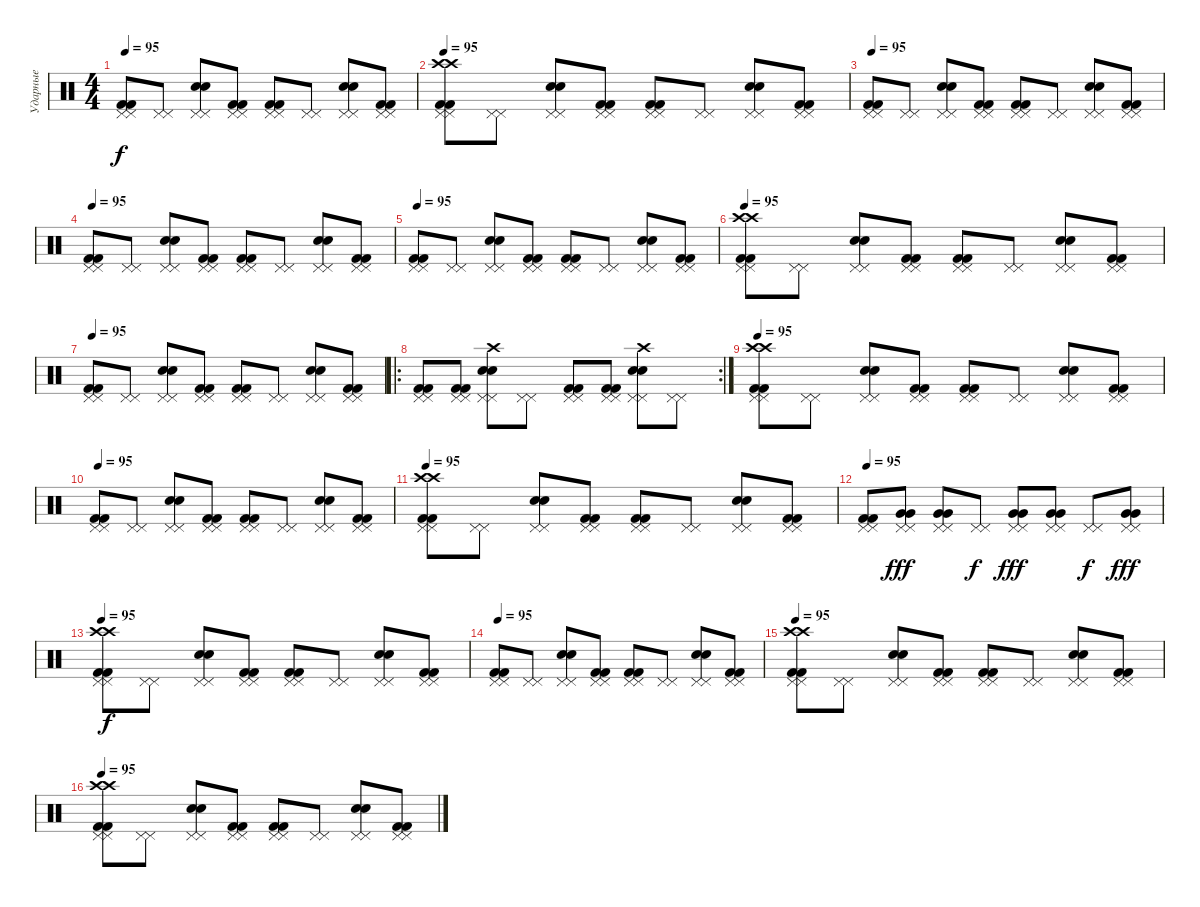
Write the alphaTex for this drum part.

\track ("Ударные" "Ударные") {instrument percussion}
\staff {score}
\articulation defaults
\ts (4 4)
\tempo 95
\clef neutral
\ks c
("Kick (hit) 2" "Kick (hit) 2" "Pedal Hi-Hat (hit)" "Pedal Hi-Hat (hit)").8{dy f} ("Pedal Hi-Hat (hit)" "Pedal Hi-Hat (hit)").8 ("Pedal Hi-Hat (hit)" "Pedal Hi-Hat (hit)" "Electric Snare (hit)" "Electric Snare (hit)").8 ("Pedal Hi-Hat (hit)" "Pedal Hi-Hat (hit)" "Kick (hit) 2" "Kick (hit) 2").8 ("Pedal Hi-Hat (hit)" "Pedal Hi-Hat (hit)" "Kick (hit) 2" "Kick (hit) 2").8 ("Pedal Hi-Hat (hit)" "Pedal Hi-Hat (hit)").8 ("Pedal Hi-Hat (hit)" "Pedal Hi-Hat (hit)" "Electric Snare (hit)" "Electric Snare (hit)").8 ("Pedal Hi-Hat (hit)" "Pedal Hi-Hat (hit)" "Kick (hit) 2" "Kick (hit) 2").8 |
\tempo 95
("Kick (hit) 2" "Kick (hit) 2" "Pedal Hi-Hat (hit)" "Pedal Hi-Hat (hit)" "Crash high (hit)" "Crash high (hit)").8 ("Pedal Hi-Hat (hit)" "Pedal Hi-Hat (hit)").8 ("Pedal Hi-Hat (hit)" "Pedal Hi-Hat (hit)" "Electric Snare (hit)" "Electric Snare (hit)").8 ("Pedal Hi-Hat (hit)" "Pedal Hi-Hat (hit)" "Kick (hit) 2" "Kick (hit) 2").8 ("Pedal Hi-Hat (hit)" "Pedal Hi-Hat (hit)" "Kick (hit) 2" "Kick (hit) 2").8 ("Pedal Hi-Hat (hit)" "Pedal Hi-Hat (hit)").8 ("Pedal Hi-Hat (hit)" "Pedal Hi-Hat (hit)" "Electric Snare (hit)" "Electric Snare (hit)").8 ("Pedal Hi-Hat (hit)" "Pedal Hi-Hat (hit)" "Kick (hit) 2" "Kick (hit) 2").8 |
\tempo 95
("Kick (hit) 2" "Kick (hit) 2" "Pedal Hi-Hat (hit)" "Pedal Hi-Hat (hit)").8 ("Pedal Hi-Hat (hit)" "Pedal Hi-Hat (hit)").8 ("Pedal Hi-Hat (hit)" "Pedal Hi-Hat (hit)" "Electric Snare (hit)" "Electric Snare (hit)").8 ("Pedal Hi-Hat (hit)" "Pedal Hi-Hat (hit)" "Kick (hit) 2" "Kick (hit) 2").8 ("Pedal Hi-Hat (hit)" "Pedal Hi-Hat (hit)" "Kick (hit) 2" "Kick (hit) 2").8 ("Pedal Hi-Hat (hit)" "Pedal Hi-Hat (hit)").8 ("Pedal Hi-Hat (hit)" "Pedal Hi-Hat (hit)" "Electric Snare (hit)" "Electric Snare (hit)").8 ("Pedal Hi-Hat (hit)" "Pedal Hi-Hat (hit)" "Kick (hit) 2" "Kick (hit) 2").8 |
\tempo 95
("Kick (hit) 2" "Kick (hit) 2" "Pedal Hi-Hat (hit)" "Pedal Hi-Hat (hit)").8 ("Pedal Hi-Hat (hit)" "Pedal Hi-Hat (hit)").8 ("Pedal Hi-Hat (hit)" "Pedal Hi-Hat (hit)" "Electric Snare (hit)" "Electric Snare (hit)").8 ("Pedal Hi-Hat (hit)" "Pedal Hi-Hat (hit)" "Kick (hit) 2" "Kick (hit) 2").8 ("Pedal Hi-Hat (hit)" "Pedal Hi-Hat (hit)" "Kick (hit) 2" "Kick (hit) 2").8 ("Pedal Hi-Hat (hit)" "Pedal Hi-Hat (hit)").8 ("Pedal Hi-Hat (hit)" "Pedal Hi-Hat (hit)" "Electric Snare (hit)" "Electric Snare (hit)").8 ("Pedal Hi-Hat (hit)" "Pedal Hi-Hat (hit)" "Kick (hit) 2" "Kick (hit) 2").8 |
\tempo 95
("Kick (hit) 2" "Kick (hit) 2" "Pedal Hi-Hat (hit)" "Pedal Hi-Hat (hit)").8 ("Pedal Hi-Hat (hit)" "Pedal Hi-Hat (hit)").8 ("Pedal Hi-Hat (hit)" "Pedal Hi-Hat (hit)" "Electric Snare (hit)" "Electric Snare (hit)").8 ("Pedal Hi-Hat (hit)" "Pedal Hi-Hat (hit)" "Kick (hit) 2" "Kick (hit) 2").8 ("Pedal Hi-Hat (hit)" "Pedal Hi-Hat (hit)" "Kick (hit) 2" "Kick (hit) 2").8 ("Pedal Hi-Hat (hit)" "Pedal Hi-Hat (hit)").8 ("Pedal Hi-Hat (hit)" "Pedal Hi-Hat (hit)" "Electric Snare (hit)" "Electric Snare (hit)").8 ("Pedal Hi-Hat (hit)" "Pedal Hi-Hat (hit)" "Kick (hit) 2" "Kick (hit) 2").8 |
\tempo 95
("Kick (hit) 2" "Kick (hit) 2" "Pedal Hi-Hat (hit)" "Pedal Hi-Hat (hit)" "Crash high (hit)" "Crash high (hit)").8 ("Pedal Hi-Hat (hit)" "Pedal Hi-Hat (hit)").8 ("Pedal Hi-Hat (hit)" "Pedal Hi-Hat (hit)" "Electric Snare (hit)" "Electric Snare (hit)").8 ("Pedal Hi-Hat (hit)" "Pedal Hi-Hat (hit)" "Kick (hit) 2" "Kick (hit) 2").8 ("Pedal Hi-Hat (hit)" "Pedal Hi-Hat (hit)" "Kick (hit) 2" "Kick (hit) 2").8 ("Pedal Hi-Hat (hit)" "Pedal Hi-Hat (hit)").8 ("Pedal Hi-Hat (hit)" "Pedal Hi-Hat (hit)" "Electric Snare (hit)" "Electric Snare (hit)").8 ("Pedal Hi-Hat (hit)" "Pedal Hi-Hat (hit)" "Kick (hit) 2" "Kick (hit) 2").8 |
\tempo 95
("Kick (hit) 2" "Kick (hit) 2" "Pedal Hi-Hat (hit)" "Pedal Hi-Hat (hit)").8 ("Pedal Hi-Hat (hit)" "Pedal Hi-Hat (hit)").8 ("Pedal Hi-Hat (hit)" "Pedal Hi-Hat (hit)" "Electric Snare (hit)" "Electric Snare (hit)").8 ("Pedal Hi-Hat (hit)" "Pedal Hi-Hat (hit)" "Kick (hit) 2" "Kick (hit) 2").8 ("Pedal Hi-Hat (hit)" "Pedal Hi-Hat (hit)" "Kick (hit) 2" "Kick (hit) 2").8 ("Pedal Hi-Hat (hit)" "Pedal Hi-Hat (hit)").8 ("Pedal Hi-Hat (hit)" "Pedal Hi-Hat (hit)" "Electric Snare (hit)" "Electric Snare (hit)").8 ("Pedal Hi-Hat (hit)" "Pedal Hi-Hat (hit)" "Kick (hit) 2" "Kick (hit) 2").8 |
\ro
\rc 2
("Kick (hit) 2" "Kick (hit) 2" "Pedal Hi-Hat (hit)" "Pedal Hi-Hat (hit)").8 ("Kick (hit) 2" "Kick (hit) 2" "Pedal Hi-Hat (hit)" "Pedal Hi-Hat (hit)").8 ("Electric Snare (hit)" "Electric Snare (hit)" "Crash high (hit)" "Pedal Hi-Hat (hit)" "Pedal Hi-Hat (hit)").8 ("Pedal Hi-Hat (hit)" "Pedal Hi-Hat (hit)").8 ("Kick (hit) 2" "Kick (hit) 2" "Pedal Hi-Hat (hit)" "Pedal Hi-Hat (hit)").8 ("Kick (hit) 2" "Kick (hit) 2" "Pedal Hi-Hat (hit)" "Pedal Hi-Hat (hit)").8 ("Electric Snare (hit)" "Electric Snare (hit)" "Crash high (hit)" "Pedal Hi-Hat (hit)" "Pedal Hi-Hat (hit)").8 ("Pedal Hi-Hat (hit)" "Pedal Hi-Hat (hit)").8 |
\tempo 95
("Kick (hit) 2" "Kick (hit) 2" "Pedal Hi-Hat (hit)" "Pedal Hi-Hat (hit)" "Crash high (hit)" "Crash high (hit)").8 ("Pedal Hi-Hat (hit)" "Pedal Hi-Hat (hit)").8 ("Pedal Hi-Hat (hit)" "Pedal Hi-Hat (hit)" "Electric Snare (hit)" "Electric Snare (hit)").8 ("Pedal Hi-Hat (hit)" "Pedal Hi-Hat (hit)" "Kick (hit) 2" "Kick (hit) 2").8 ("Pedal Hi-Hat (hit)" "Pedal Hi-Hat (hit)" "Kick (hit) 2" "Kick (hit) 2").8 ("Pedal Hi-Hat (hit)" "Pedal Hi-Hat (hit)").8 ("Pedal Hi-Hat (hit)" "Pedal Hi-Hat (hit)" "Electric Snare (hit)" "Electric Snare (hit)").8 ("Pedal Hi-Hat (hit)" "Pedal Hi-Hat (hit)" "Kick (hit) 2" "Kick (hit) 2").8 |
\tempo 95
("Kick (hit) 2" "Kick (hit) 2" "Pedal Hi-Hat (hit)" "Pedal Hi-Hat (hit)").8 ("Pedal Hi-Hat (hit)" "Pedal Hi-Hat (hit)").8 ("Pedal Hi-Hat (hit)" "Pedal Hi-Hat (hit)" "Electric Snare (hit)" "Electric Snare (hit)").8 ("Pedal Hi-Hat (hit)" "Pedal Hi-Hat (hit)" "Kick (hit) 2" "Kick (hit) 2").8 ("Pedal Hi-Hat (hit)" "Pedal Hi-Hat (hit)" "Kick (hit) 2" "Kick (hit) 2").8 ("Pedal Hi-Hat (hit)" "Pedal Hi-Hat (hit)").8 ("Pedal Hi-Hat (hit)" "Pedal Hi-Hat (hit)" "Electric Snare (hit)" "Electric Snare (hit)").8 ("Pedal Hi-Hat (hit)" "Pedal Hi-Hat (hit)" "Kick (hit) 2" "Kick (hit) 2").8 |
\tempo 95
("Kick (hit) 2" "Kick (hit) 2" "Pedal Hi-Hat (hit)" "Pedal Hi-Hat (hit)" "Crash high (hit)" "Crash high (hit)").8 ("Pedal Hi-Hat (hit)" "Pedal Hi-Hat (hit)").8 ("Pedal Hi-Hat (hit)" "Pedal Hi-Hat (hit)" "Electric Snare (hit)" "Electric Snare (hit)").8 ("Pedal Hi-Hat (hit)" "Pedal Hi-Hat (hit)" "Kick (hit) 2" "Kick (hit) 2").8 ("Pedal Hi-Hat (hit)" "Pedal Hi-Hat (hit)" "Kick (hit) 2" "Kick (hit) 2").8 ("Pedal Hi-Hat (hit)" "Pedal Hi-Hat (hit)").8 ("Pedal Hi-Hat (hit)" "Pedal Hi-Hat (hit)" "Electric Snare (hit)" "Electric Snare (hit)").8 ("Pedal Hi-Hat (hit)" "Pedal Hi-Hat (hit)" "Kick (hit) 2" "Kick (hit) 2").8 |
\tempo 95
("Kick (hit) 2" "Kick (hit) 2" "Pedal Hi-Hat (hit)" "Pedal Hi-Hat (hit)").8 ("Pedal Hi-Hat (hit)" "Pedal Hi-Hat (hit)" "Very Low Tom (hit)" "Very Low Tom (hit)").8{dy fff} ("Pedal Hi-Hat (hit)" "Pedal Hi-Hat (hit)" "Very Low Tom (hit)" "Very Low Tom (hit)").8 ("Pedal Hi-Hat (hit)" "Pedal Hi-Hat (hit)").8{dy f} ("Pedal Hi-Hat (hit)" "Pedal Hi-Hat (hit)" "Very Low Tom (hit)" "Very Low Tom (hit)").8{dy fff} ("Pedal Hi-Hat (hit)" "Pedal Hi-Hat (hit)" "Very Low Tom (hit)" "Very Low Tom (hit)").8 ("Pedal Hi-Hat (hit)" "Pedal Hi-Hat (hit)").8{dy f} ("Pedal Hi-Hat (hit)" "Pedal Hi-Hat (hit)" "Very Low Tom (hit)" "Very Low Tom (hit)").8{dy fff} |
\tempo 95
("Kick (hit) 2" "Kick (hit) 2" "Pedal Hi-Hat (hit)" "Pedal Hi-Hat (hit)" "Crash high (hit)" "Crash high (hit)").8{dy f} ("Pedal Hi-Hat (hit)" "Pedal Hi-Hat (hit)").8 ("Pedal Hi-Hat (hit)" "Pedal Hi-Hat (hit)" "Electric Snare (hit)" "Electric Snare (hit)").8 ("Pedal Hi-Hat (hit)" "Pedal Hi-Hat (hit)" "Kick (hit) 2" "Kick (hit) 2").8 ("Pedal Hi-Hat (hit)" "Pedal Hi-Hat (hit)" "Kick (hit) 2" "Kick (hit) 2").8 ("Pedal Hi-Hat (hit)" "Pedal Hi-Hat (hit)").8 ("Pedal Hi-Hat (hit)" "Pedal Hi-Hat (hit)" "Electric Snare (hit)" "Electric Snare (hit)").8 ("Pedal Hi-Hat (hit)" "Pedal Hi-Hat (hit)" "Kick (hit) 2" "Kick (hit) 2").8 |
\tempo 95
("Kick (hit) 2" "Kick (hit) 2" "Pedal Hi-Hat (hit)" "Pedal Hi-Hat (hit)").8 ("Pedal Hi-Hat (hit)" "Pedal Hi-Hat (hit)").8 ("Pedal Hi-Hat (hit)" "Pedal Hi-Hat (hit)" "Electric Snare (hit)" "Electric Snare (hit)").8 ("Pedal Hi-Hat (hit)" "Pedal Hi-Hat (hit)" "Kick (hit) 2" "Kick (hit) 2").8 ("Pedal Hi-Hat (hit)" "Pedal Hi-Hat (hit)" "Kick (hit) 2" "Kick (hit) 2").8 ("Pedal Hi-Hat (hit)" "Pedal Hi-Hat (hit)").8 ("Pedal Hi-Hat (hit)" "Pedal Hi-Hat (hit)" "Electric Snare (hit)" "Electric Snare (hit)").8 ("Pedal Hi-Hat (hit)" "Pedal Hi-Hat (hit)" "Kick (hit) 2" "Kick (hit) 2").8 |
\tempo 95
("Kick (hit) 2" "Kick (hit) 2" "Pedal Hi-Hat (hit)" "Pedal Hi-Hat (hit)" "Crash high (hit)" "Crash high (hit)").8 ("Pedal Hi-Hat (hit)" "Pedal Hi-Hat (hit)").8 ("Pedal Hi-Hat (hit)" "Pedal Hi-Hat (hit)" "Electric Snare (hit)" "Electric Snare (hit)").8 ("Pedal Hi-Hat (hit)" "Pedal Hi-Hat (hit)" "Kick (hit) 2" "Kick (hit) 2").8 ("Pedal Hi-Hat (hit)" "Pedal Hi-Hat (hit)" "Kick (hit) 2" "Kick (hit) 2").8 ("Pedal Hi-Hat (hit)" "Pedal Hi-Hat (hit)").8 ("Pedal Hi-Hat (hit)" "Pedal Hi-Hat (hit)" "Electric Snare (hit)" "Electric Snare (hit)").8 ("Pedal Hi-Hat (hit)" "Pedal Hi-Hat (hit)" "Kick (hit) 2" "Kick (hit) 2").8 |
\tempo 95
("Kick (hit) 2" "Kick (hit) 2" "Pedal Hi-Hat (hit)" "Pedal Hi-Hat (hit)" "Crash high (hit)" "Crash high (hit)").8 ("Pedal Hi-Hat (hit)" "Pedal Hi-Hat (hit)").8 ("Pedal Hi-Hat (hit)" "Pedal Hi-Hat (hit)" "Electric Snare (hit)" "Electric Snare (hit)").8 ("Pedal Hi-Hat (hit)" "Pedal Hi-Hat (hit)" "Kick (hit) 2" "Kick (hit) 2").8 ("Pedal Hi-Hat (hit)" "Pedal Hi-Hat (hit)" "Kick (hit) 2" "Kick (hit) 2").8 ("Pedal Hi-Hat (hit)" "Pedal Hi-Hat (hit)").8 ("Pedal Hi-Hat (hit)" "Pedal Hi-Hat (hit)" "Electric Snare (hit)" "Electric Snare (hit)").8 ("Pedal Hi-Hat (hit)" "Pedal Hi-Hat (hit)" "Kick (hit) 2" "Kick (hit) 2").8
